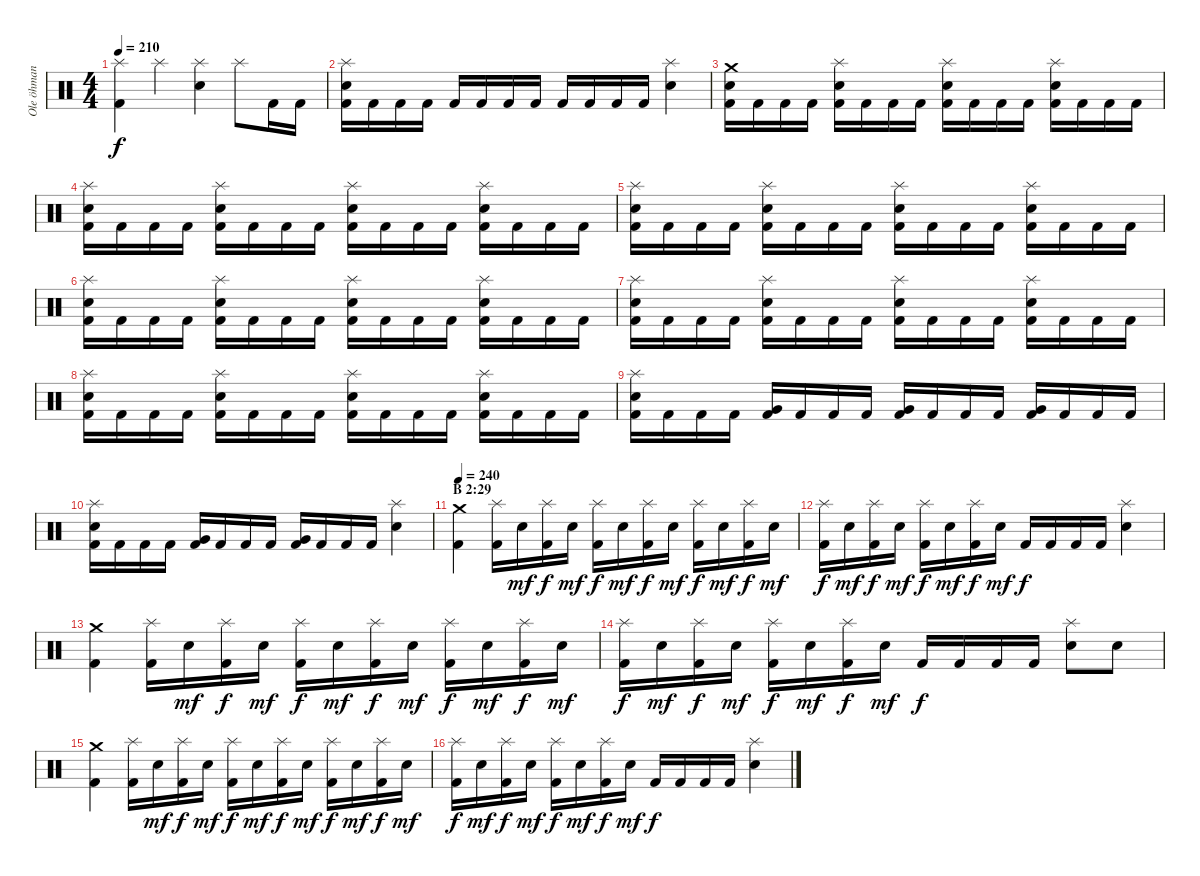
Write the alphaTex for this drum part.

\track ("Ole öhman" "Ole öhman") {instrument percussion}
\staff {score}
\articulation defaults
\ts (4 4)
\tempo 210
\clef neutral
\ks c
("Splash (hit)" "Kick (hit) 2").4{dy f} "Splash (hit)".4 ("Splash (hit)" "Electric Snare (hit)").4 "Splash (hit)".8 "Kick (hit) 2".16 "Kick (hit) 2".16 |
("Splash (hit)" "Electric Snare (hit)" "Kick (hit) 2").16 "Kick (hit) 2".16 "Kick (hit) 2".16 "Kick (hit) 2".16 "Kick (hit) 2".16 "Kick (hit) 2".16 "Kick (hit) 2".16 "Kick (hit) 2".16 "Kick (hit) 2".16 "Kick (hit) 2".16 "Kick (hit) 2".16 "Kick (hit) 2".16 ("Splash (hit)" "Electric Snare (hit)").4 |
("Crash medium (hit)" "Electric Snare (hit)" "Kick (hit) 2").16 "Kick (hit) 2".16 "Kick (hit) 2".16 "Kick (hit) 2".16 ("Splash (hit)" "Electric Snare (hit)" "Kick (hit) 2").16 "Kick (hit) 2".16 "Kick (hit) 2".16 "Kick (hit) 2".16 ("Splash (hit)" "Electric Snare (hit)" "Kick (hit) 2").16 "Kick (hit) 2".16 "Kick (hit) 2".16 "Kick (hit) 2".16 ("Splash (hit)" "Electric Snare (hit)" "Kick (hit) 2").16 "Kick (hit) 2".16 "Kick (hit) 2".16 "Kick (hit) 2".16 |
("Splash (hit)" "Electric Snare (hit)" "Kick (hit) 2").16 "Kick (hit) 2".16 "Kick (hit) 2".16 "Kick (hit) 2".16 ("Splash (hit)" "Electric Snare (hit)" "Kick (hit) 2").16 "Kick (hit) 2".16 "Kick (hit) 2".16 "Kick (hit) 2".16 ("Splash (hit)" "Electric Snare (hit)" "Kick (hit) 2").16 "Kick (hit) 2".16 "Kick (hit) 2".16 "Kick (hit) 2".16 ("Splash (hit)" "Electric Snare (hit)" "Kick (hit) 2").16 "Kick (hit) 2".16 "Kick (hit) 2".16 "Kick (hit) 2".16 |
("Splash (hit)" "Electric Snare (hit)" "Kick (hit) 2").16 "Kick (hit) 2".16 "Kick (hit) 2".16 "Kick (hit) 2".16 ("Splash (hit)" "Electric Snare (hit)" "Kick (hit) 2").16 "Kick (hit) 2".16 "Kick (hit) 2".16 "Kick (hit) 2".16 ("Splash (hit)" "Electric Snare (hit)" "Kick (hit) 2").16 "Kick (hit) 2".16 "Kick (hit) 2".16 "Kick (hit) 2".16 ("Splash (hit)" "Electric Snare (hit)" "Kick (hit) 2").16 "Kick (hit) 2".16 "Kick (hit) 2".16 "Kick (hit) 2".16 |
("Splash (hit)" "Electric Snare (hit)" "Kick (hit) 2").16 "Kick (hit) 2".16 "Kick (hit) 2".16 "Kick (hit) 2".16 ("Splash (hit)" "Electric Snare (hit)" "Kick (hit) 2").16 "Kick (hit) 2".16 "Kick (hit) 2".16 "Kick (hit) 2".16 ("Splash (hit)" "Electric Snare (hit)" "Kick (hit) 2").16 "Kick (hit) 2".16 "Kick (hit) 2".16 "Kick (hit) 2".16 ("Splash (hit)" "Electric Snare (hit)" "Kick (hit) 2").16 "Kick (hit) 2".16 "Kick (hit) 2".16 "Kick (hit) 2".16 |
("Splash (hit)" "Electric Snare (hit)" "Kick (hit) 2").16 "Kick (hit) 2".16 "Kick (hit) 2".16 "Kick (hit) 2".16 ("Splash (hit)" "Electric Snare (hit)" "Kick (hit) 2").16 "Kick (hit) 2".16 "Kick (hit) 2".16 "Kick (hit) 2".16 ("Splash (hit)" "Electric Snare (hit)" "Kick (hit) 2").16 "Kick (hit) 2".16 "Kick (hit) 2".16 "Kick (hit) 2".16 ("Splash (hit)" "Electric Snare (hit)" "Kick (hit) 2").16 "Kick (hit) 2".16 "Kick (hit) 2".16 "Kick (hit) 2".16 |
("Splash (hit)" "Electric Snare (hit)" "Kick (hit) 2").16 "Kick (hit) 2".16 "Kick (hit) 2".16 "Kick (hit) 2".16 ("Splash (hit)" "Electric Snare (hit)" "Kick (hit) 2").16 "Kick (hit) 2".16 "Kick (hit) 2".16 "Kick (hit) 2".16 ("Splash (hit)" "Electric Snare (hit)" "Kick (hit) 2").16 "Kick (hit) 2".16 "Kick (hit) 2".16 "Kick (hit) 2".16 ("Splash (hit)" "Electric Snare (hit)" "Kick (hit) 2").16 "Kick (hit) 2".16 "Kick (hit) 2".16 "Kick (hit) 2".16 |
("Splash (hit)" "Electric Snare (hit)" "Kick (hit) 2").16 "Kick (hit) 2".16 "Kick (hit) 2".16 "Kick (hit) 2".16 ("Very Low Tom (hit)" "Kick (hit) 2").16 "Kick (hit) 2".16 "Kick (hit) 2".16 "Kick (hit) 2".16 ("Very Low Tom (hit)" "Kick (hit) 2").16 "Kick (hit) 2".16 "Kick (hit) 2".16 "Kick (hit) 2".16 ("Very Low Tom (hit)" "Kick (hit) 2").16 "Kick (hit) 2".16 "Kick (hit) 2".16 "Kick (hit) 2".16 |
("Splash (hit)" "Electric Snare (hit)" "Kick (hit) 2").16 "Kick (hit) 2".16 "Kick (hit) 2".16 "Kick (hit) 2".16 ("Very Low Tom (hit)" "Kick (hit) 2").16 "Kick (hit) 2".16 "Kick (hit) 2".16 "Kick (hit) 2".16 ("Very Low Tom (hit)" "Kick (hit) 2").16 "Kick (hit) 2".16 "Kick (hit) 2".16 "Kick (hit) 2".16 ("Splash (hit)" "Electric Snare (hit)").4 |
\section ("" "B 2:29")
\tempo 240
("Crash medium (hit)" "Kick (hit) 2").4 ("Splash (hit)" "Kick (hit) 2").16 "Electric Snare (hit)".16{dy mf} ("Splash (hit)" "Kick (hit) 2").16{dy f} "Electric Snare (hit)".16{dy mf} ("Splash (hit)" "Kick (hit) 2").16{dy f} "Electric Snare (hit)".16{dy mf} ("Splash (hit)" "Kick (hit) 2").16{dy f} "Electric Snare (hit)".16{dy mf} ("Splash (hit)" "Kick (hit) 2").16{dy f} "Electric Snare (hit)".16{dy mf} ("Splash (hit)" "Kick (hit) 2").16{dy f} "Electric Snare (hit)".16{dy mf} |
("Splash (hit)" "Kick (hit) 2").16{dy f} "Electric Snare (hit)".16{dy mf} ("Splash (hit)" "Kick (hit) 2").16{dy f} "Electric Snare (hit)".16{dy mf} ("Splash (hit)" "Kick (hit) 2").16{dy f} "Electric Snare (hit)".16{dy mf} ("Splash (hit)" "Kick (hit) 2").16{dy f} "Electric Snare (hit)".16{dy mf} "Kick (hit) 2".16{dy f} "Kick (hit) 2".16 "Kick (hit) 2".16 "Kick (hit) 2".16 ("Splash (hit)" "Electric Snare (hit)").4 |
("Crash medium (hit)" "Kick (hit) 2").4 ("Splash (hit)" "Kick (hit) 2").16 "Electric Snare (hit)".16{dy mf} ("Splash (hit)" "Kick (hit) 2").16{dy f} "Electric Snare (hit)".16{dy mf} ("Splash (hit)" "Kick (hit) 2").16{dy f} "Electric Snare (hit)".16{dy mf} ("Splash (hit)" "Kick (hit) 2").16{dy f} "Electric Snare (hit)".16{dy mf} ("Splash (hit)" "Kick (hit) 2").16{dy f} "Electric Snare (hit)".16{dy mf} ("Splash (hit)" "Kick (hit) 2").16{dy f} "Electric Snare (hit)".16{dy mf} |
("Splash (hit)" "Kick (hit) 2").16{dy f} "Electric Snare (hit)".16{dy mf} ("Splash (hit)" "Kick (hit) 2").16{dy f} "Electric Snare (hit)".16{dy mf} ("Splash (hit)" "Kick (hit) 2").16{dy f} "Electric Snare (hit)".16{dy mf} ("Splash (hit)" "Kick (hit) 2").16{dy f} "Electric Snare (hit)".16{dy mf} "Kick (hit) 2".16{dy f} "Kick (hit) 2".16 "Kick (hit) 2".16 "Kick (hit) 2".16 ("Splash (hit)" "Electric Snare (hit)").8 "Electric Snare (hit)".8 |
("Crash medium (hit)" "Kick (hit) 2").4 ("Splash (hit)" "Kick (hit) 2").16 "Electric Snare (hit)".16{dy mf} ("Splash (hit)" "Kick (hit) 2").16{dy f} "Electric Snare (hit)".16{dy mf} ("Splash (hit)" "Kick (hit) 2").16{dy f} "Electric Snare (hit)".16{dy mf} ("Splash (hit)" "Kick (hit) 2").16{dy f} "Electric Snare (hit)".16{dy mf} ("Splash (hit)" "Kick (hit) 2").16{dy f} "Electric Snare (hit)".16{dy mf} ("Splash (hit)" "Kick (hit) 2").16{dy f} "Electric Snare (hit)".16{dy mf} |
("Splash (hit)" "Kick (hit) 2").16{dy f} "Electric Snare (hit)".16{dy mf} ("Splash (hit)" "Kick (hit) 2").16{dy f} "Electric Snare (hit)".16{dy mf} ("Splash (hit)" "Kick (hit) 2").16{dy f} "Electric Snare (hit)".16{dy mf} ("Splash (hit)" "Kick (hit) 2").16{dy f} "Electric Snare (hit)".16{dy mf} "Kick (hit) 2".16{dy f} "Kick (hit) 2".16 "Kick (hit) 2".16 "Kick (hit) 2".16 ("Splash (hit)" "Electric Snare (hit)").4
